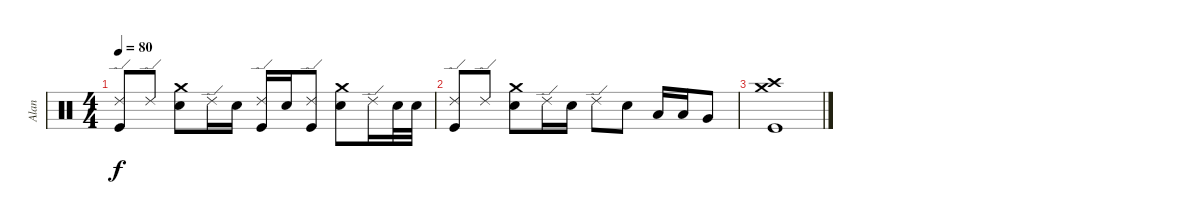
\track ("Alan" "Alan") {instrument percussion}
\staff {score}
\articulation defaults
\ts (4 4)
\tempo 80
\clef neutral
\ks c
("Ride (edge) 2" "Kick (hit)").8{dy f} "Ride (edge) 2".8 ("Crash medium (hit)" "Snare (hit) 2").8 "Ride (edge) 2".16 "Snare (hit) 2".16 ("Ride (edge) 2" "Kick (hit)").16 "Snare (hit) 2".16 ("Ride (edge) 2" "Kick (hit)").8 ("Crash medium (hit)" "Snare (hit) 2").8 "Ride (edge) 2".16 "Snare (hit) 2".32 "Snare (hit) 2".32 |
("Ride (edge) 2" "Kick (hit)").8 "Ride (edge) 2".8 ("Crash medium (hit)" "Snare (hit) 2").8 "Ride (edge) 2".16 "Snare (hit) 2".16 "Ride (edge) 2".8 "Snare (hit) 2".8 "Low Tom (hit)".16 "Low Tom (hit)".16 "Very Low Tom (hit)".8 |
("Crash medium (hit)" "Crash high (hit)" "Kick (hit)").1
